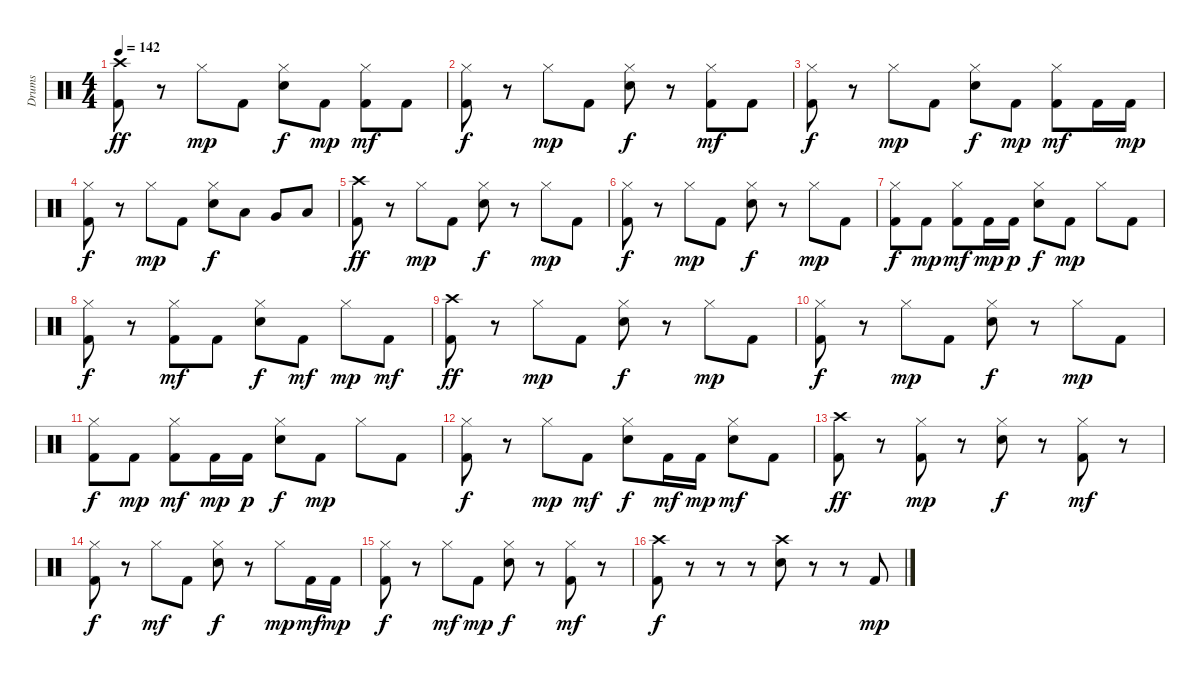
\track ("Drums" "Drums") {instrument percussion}
\staff {score}
\articulation defaults
\ts (4 4)
\tempo 142
\clef neutral
\ks c
("Crash high (hit)" "Kick (hit) 2").8{dy ff} r.8 "Hi-Hat (closed)".8{dy mp} "Kick (hit) 2".8 ("Hi-Hat (closed)" "Snare (hit) 2").8{dy f} "Kick (hit) 2".8{dy mp} ("Hi-Hat (closed)" "Kick (hit) 2").8{dy mf} "Kick (hit) 2".8 |
("Hi-Hat (closed)" "Kick (hit) 2").8{dy f} r.8 "Hi-Hat (closed)".8{dy mp} "Kick (hit) 2".8 ("Hi-Hat (closed)" "Snare (hit) 2").8{dy f} r.8 ("Hi-Hat (closed)" "Kick (hit) 2").8{dy mf} "Kick (hit) 2".8 |
("Hi-Hat (closed)" "Kick (hit) 2").8{dy f} r.8 "Hi-Hat (closed)".8{dy mp} "Kick (hit) 2".8 ("Hi-Hat (closed)" "Snare (hit) 2").8{dy f} "Kick (hit) 2".8{dy mp} ("Hi-Hat (closed)" "Kick (hit) 2").8{dy mf} "Kick (hit) 2".16 "Kick (hit) 2".16{dy mp} |
("Hi-Hat (closed)" "Kick (hit) 2").8{dy f} r.8 "Hi-Hat (closed)".8{dy mp} "Kick (hit) 2".8 ("Hi-Hat (closed)" "Snare (hit) 2").8{dy f} "Low Tom (hit)".8 "Very Low Tom (hit)".8 "Low Floor Tom (hit)".8 |
("Crash high (hit)" "Kick (hit) 2").8{dy ff} r.8 "Hi-Hat (closed)".8{dy mp} "Kick (hit) 2".8 ("Hi-Hat (closed)" "Snare (hit) 2").8{dy f} r.8 "Hi-Hat (closed)".8{dy mp} "Kick (hit) 2".8 |
("Hi-Hat (closed)" "Kick (hit) 2").8{dy f} r.8 "Hi-Hat (closed)".8{dy mp} "Kick (hit) 2".8 ("Hi-Hat (closed)" "Snare (hit) 2").8{dy f} r.8 "Hi-Hat (closed)".8{dy mp} "Kick (hit) 2".8 |
("Hi-Hat (closed)" "Kick (hit) 2").8{dy f} "Kick (hit) 2".8{dy mp} ("Hi-Hat (closed)" "Kick (hit) 2").8{dy mf} "Kick (hit) 2".16{dy mp} "Kick (hit) 2".16{dy p} ("Hi-Hat (closed)" "Snare (hit) 2").8{dy f} "Kick (hit) 2".8{dy mp} "Hi-Hat (closed)".8 "Kick (hit) 2".8 |
("Hi-Hat (closed)" "Kick (hit) 2").8{dy f} r.8 ("Hi-Hat (closed)" "Kick (hit) 2").8{dy mf} "Kick (hit) 2".8 ("Hi-Hat (closed)" "Snare (hit) 2").8{dy f} "Kick (hit) 2".8{dy mf} "Hi-Hat (closed)".8{dy mp} "Kick (hit) 2".8{dy mf} |
("Crash high (hit)" "Kick (hit) 2").8{dy ff} r.8 "Hi-Hat (closed)".8{dy mp} "Kick (hit) 2".8 ("Hi-Hat (closed)" "Snare (hit) 2").8{dy f} r.8 "Hi-Hat (closed)".8{dy mp} "Kick (hit) 2".8 |
("Hi-Hat (closed)" "Kick (hit) 2").8{dy f} r.8 "Hi-Hat (closed)".8{dy mp} "Kick (hit) 2".8 ("Hi-Hat (closed)" "Snare (hit) 2").8{dy f} r.8 "Hi-Hat (closed)".8{dy mp} "Kick (hit) 2".8 |
("Hi-Hat (closed)" "Kick (hit) 2").8{dy f} "Kick (hit) 2".8{dy mp} ("Hi-Hat (closed)" "Kick (hit) 2").8{dy mf} "Kick (hit) 2".16{dy mp} "Kick (hit) 2".16{dy p} ("Hi-Hat (closed)" "Snare (hit) 2").8{dy f} "Kick (hit) 2".8{dy mp} "Hi-Hat (closed)".8 "Kick (hit) 2".8 |
("Hi-Hat (closed)" "Kick (hit) 2").8{dy f} r.8 "Hi-Hat (closed)".8{dy mp} "Kick (hit) 2".8{dy mf} ("Hi-Hat (closed)" "Snare (hit) 2").8{dy f} "Kick (hit) 2".16{dy mf} "Kick (hit) 2".16{dy mp} ("Hi-Hat (closed)" "Snare (hit) 2").8{dy mf} "Kick (hit) 2".8 |
("Crash high (hit)" "Kick (hit) 2").8{dy ff} r.8 ("Hi-Hat (closed)" "Kick (hit) 2").8{dy mp} r.8 ("Hi-Hat (closed)" "Snare (hit) 2").8{dy f} r.8 ("Hi-Hat (closed)" "Kick (hit) 2").8{dy mf} r.8 |
("Hi-Hat (closed)" "Kick (hit) 2").8{dy f} r.8 "Hi-Hat (closed)".8{dy mf} "Kick (hit) 2".8 ("Hi-Hat (closed)" "Snare (hit) 2").8{dy f} r.8 "Hi-Hat (closed)".8{dy mp} "Kick (hit) 2".16{dy mf} "Kick (hit) 2".16{dy mp} |
("Hi-Hat (closed)" "Kick (hit) 2").8{dy f} r.8 "Hi-Hat (closed)".8{dy mf} "Kick (hit) 2".8{dy mp} ("Hi-Hat (closed)" "Snare (hit) 2").8{dy f} r.8 ("Hi-Hat (closed)" "Kick (hit) 2").8{dy mf} r.8 |
("Crash high (hit)" "Kick (hit) 2").8{dy f} r.8 r.8 r.8 ("Crash high (hit)" "Snare (hit) 2").8 r.8 r.8 "Kick (hit) 2".8{dy mp}
